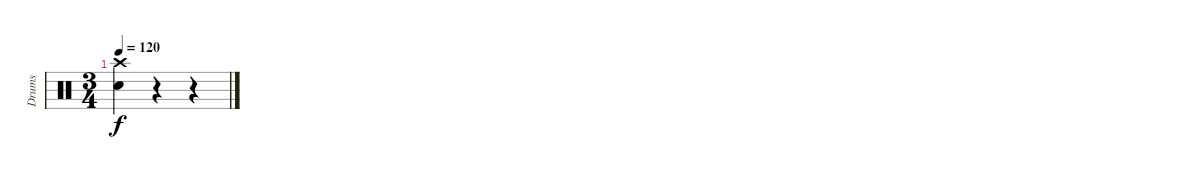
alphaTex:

\track ("Drums" "Drums") {instrument percussion}
\staff {score}
\articulation defaults
\ts (3 4)
\tempo 120
\clef neutral
\ks c
("Crash high (hit)" "Snare (hit) 2").4{dy f} r.4 r.4
